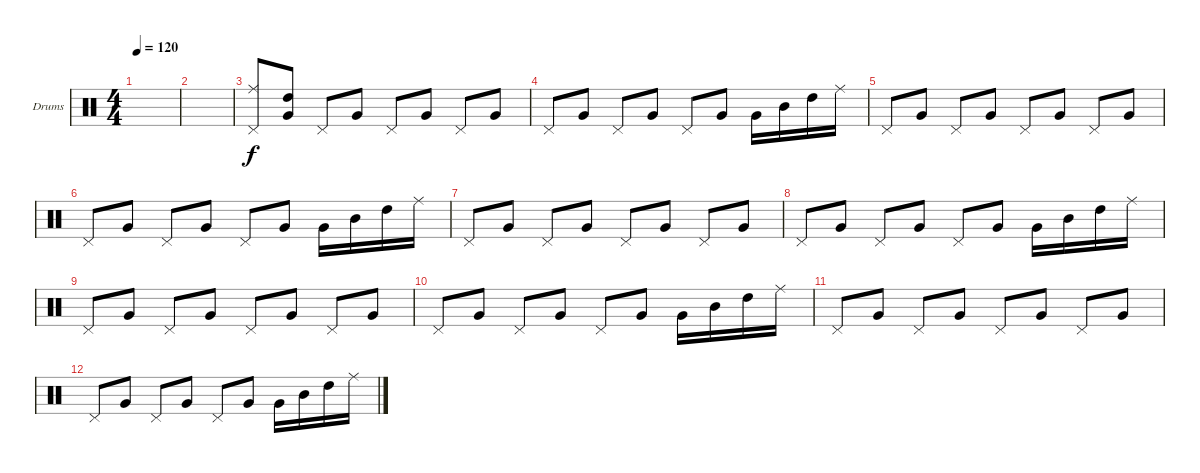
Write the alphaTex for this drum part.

\defaultSystemsLayout 4
\bracketExtendMode groupsimilarinstruments
\firstSystemTrackNameOrientation horizontal
\otherSystemsTrackNameOrientation horizontal
\track ("Drumkit" "Drums") {instrument percussion}
\staff {score}
\articulation defaults
\ts (4 4)
\tempo 120
\clef neutral
\ks c
|
|
("Pedal Hi-Hat (hit)" "Ride (middle)").8 ("Very Low Tom (hit)" "High Tom (hit)").8 "Pedal Hi-Hat (hit)".8 "Very Low Tom (hit)".8 "Pedal Hi-Hat (hit)".8 "Very Low Tom (hit)".8 "Pedal Hi-Hat (hit)".8 "Very Low Tom (hit)".8 |
"Pedal Hi-Hat (hit)".8 "Very Low Tom (hit)".8 "Pedal Hi-Hat (hit)".8 "Very Low Tom (hit)".8 "Pedal Hi-Hat (hit)".8 "Very Low Tom (hit)".8 "Very Low Tom (hit)".16 "Mid Tom (hit)".16 "High Tom (hit)".16 "Ride (middle)".16 |
"Pedal Hi-Hat (hit)".8 "Very Low Tom (hit)".8 "Pedal Hi-Hat (hit)".8 "Very Low Tom (hit)".8 "Pedal Hi-Hat (hit)".8 "Very Low Tom (hit)".8 "Pedal Hi-Hat (hit)".8 "Very Low Tom (hit)".8 |
"Pedal Hi-Hat (hit)".8 "Very Low Tom (hit)".8 "Pedal Hi-Hat (hit)".8 "Very Low Tom (hit)".8 "Pedal Hi-Hat (hit)".8 "Very Low Tom (hit)".8 "Very Low Tom (hit)".16 "Mid Tom (hit)".16 "High Tom (hit)".16 "Ride (middle)".16 |
"Pedal Hi-Hat (hit)".8 "Very Low Tom (hit)".8 "Pedal Hi-Hat (hit)".8 "Very Low Tom (hit)".8 "Pedal Hi-Hat (hit)".8 "Very Low Tom (hit)".8 "Pedal Hi-Hat (hit)".8 "Very Low Tom (hit)".8 |
"Pedal Hi-Hat (hit)".8 "Very Low Tom (hit)".8 "Pedal Hi-Hat (hit)".8 "Very Low Tom (hit)".8 "Pedal Hi-Hat (hit)".8 "Very Low Tom (hit)".8 "Very Low Tom (hit)".16 "Mid Tom (hit)".16 "High Tom (hit)".16 "Ride (middle)".16 |
"Pedal Hi-Hat (hit)".8 "Very Low Tom (hit)".8 "Pedal Hi-Hat (hit)".8 "Very Low Tom (hit)".8 "Pedal Hi-Hat (hit)".8 "Very Low Tom (hit)".8 "Pedal Hi-Hat (hit)".8 "Very Low Tom (hit)".8 |
"Pedal Hi-Hat (hit)".8 "Very Low Tom (hit)".8 "Pedal Hi-Hat (hit)".8 "Very Low Tom (hit)".8 "Pedal Hi-Hat (hit)".8 "Very Low Tom (hit)".8 "Very Low Tom (hit)".16 "Mid Tom (hit)".16 "High Tom (hit)".16 "Ride (middle)".16 |
"Pedal Hi-Hat (hit)".8 "Very Low Tom (hit)".8 "Pedal Hi-Hat (hit)".8 "Very Low Tom (hit)".8 "Pedal Hi-Hat (hit)".8 "Very Low Tom (hit)".8 "Pedal Hi-Hat (hit)".8 "Very Low Tom (hit)".8 |
"Pedal Hi-Hat (hit)".8 "Very Low Tom (hit)".8 "Pedal Hi-Hat (hit)".8 "Very Low Tom (hit)".8 "Pedal Hi-Hat (hit)".8 "Very Low Tom (hit)".8 "Very Low Tom (hit)".16 "Mid Tom (hit)".16 "High Tom (hit)".16 "Ride (middle)".16
